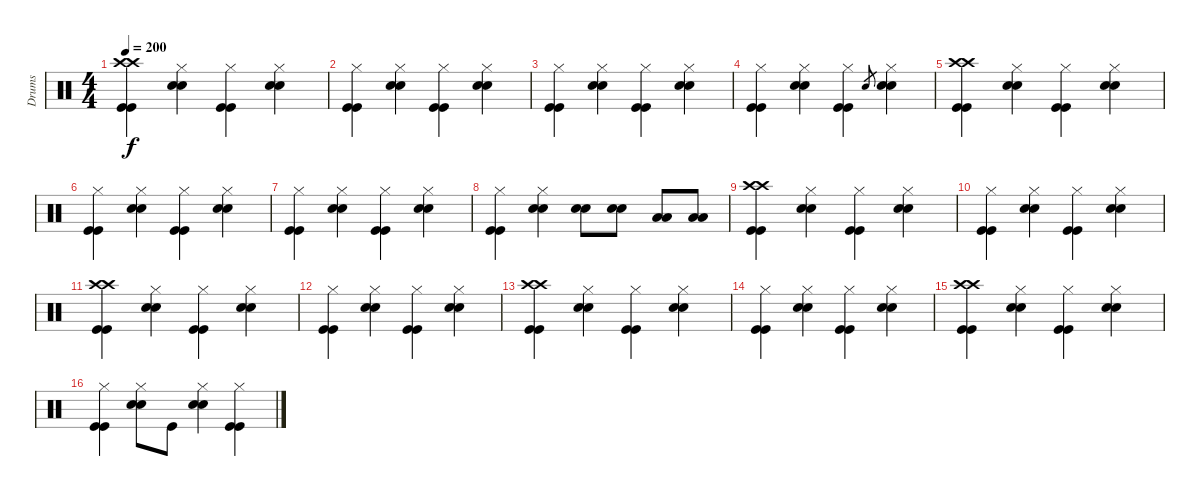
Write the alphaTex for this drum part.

\track ("Drums" "Drums") {instrument percussion}
\staff {score}
\articulation defaults
\ts (4 4)
\tempo 200
\clef neutral
\ks c
("Crash high (hit)" "Crash high (hit)" "Kick (hit)" "Kick (hit)").4{dy f} ("Hi-Hat (closed)" "Electric Snare (hit)" "Electric Snare (hit)").4 ("Hi-Hat (closed)" "Kick (hit)" "Kick (hit)").4 ("Hi-Hat (closed)" "Electric Snare (hit)" "Electric Snare (hit)").4 |
("Hi-Hat (closed)" "Kick (hit)" "Kick (hit)").4 ("Hi-Hat (closed)" "Electric Snare (hit)" "Electric Snare (hit)").4 ("Hi-Hat (closed)" "Kick (hit)" "Kick (hit)").4 ("Hi-Hat (closed)" "Electric Snare (hit)" "Electric Snare (hit)").4 |
("Hi-Hat (closed)" "Kick (hit)" "Kick (hit)").4 ("Hi-Hat (closed)" "Electric Snare (hit)" "Electric Snare (hit)").4 ("Hi-Hat (closed)" "Kick (hit)" "Kick (hit)").4 ("Hi-Hat (closed)" "Electric Snare (hit)" "Electric Snare (hit)").4 |
("Hi-Hat (closed)" "Kick (hit)" "Kick (hit)").4 ("Hi-Hat (closed)" "Electric Snare (hit)" "Electric Snare (hit)").4 ("Hi-Hat (closed)" "Kick (hit)" "Kick (hit)").4 "Electric Snare (hit)".8{gr} ("Hi-Hat (closed)" "Electric Snare (hit)" "Electric Snare (hit)").4 |
("Crash high (hit)" "Crash high (hit)" "Kick (hit)" "Kick (hit)").4 ("Hi-Hat (closed)" "Electric Snare (hit)" "Electric Snare (hit)").4 ("Hi-Hat (closed)" "Kick (hit)" "Kick (hit)").4 ("Hi-Hat (closed)" "Electric Snare (hit)" "Electric Snare (hit)").4 |
("Hi-Hat (closed)" "Kick (hit)" "Kick (hit)").4 ("Hi-Hat (closed)" "Electric Snare (hit)" "Electric Snare (hit)").4 ("Hi-Hat (closed)" "Kick (hit)" "Kick (hit)").4 ("Hi-Hat (closed)" "Electric Snare (hit)" "Electric Snare (hit)").4 |
("Hi-Hat (closed)" "Kick (hit)" "Kick (hit)").4 ("Hi-Hat (closed)" "Electric Snare (hit)" "Electric Snare (hit)").4 ("Hi-Hat (closed)" "Kick (hit)" "Kick (hit)").4 ("Hi-Hat (closed)" "Electric Snare (hit)" "Electric Snare (hit)").4 |
("Hi-Hat (closed)" "Kick (hit)" "Kick (hit)").4 ("Hi-Hat (closed)" "Electric Snare (hit)" "Electric Snare (hit)").4 ("Electric Snare (hit)" "Electric Snare (hit)").8 ("Electric Snare (hit)" "Electric Snare (hit)").8 ("Low Tom (hit)" "Low Tom (hit)").8 ("Low Tom (hit)" "Low Tom (hit)").8 |
("Crash high (hit)" "Crash high (hit)" "Kick (hit)" "Kick (hit)").4 ("Hi-Hat (closed)" "Electric Snare (hit)" "Electric Snare (hit)").4 ("Hi-Hat (closed)" "Kick (hit)" "Kick (hit)").4 ("Hi-Hat (closed)" "Electric Snare (hit)" "Electric Snare (hit)").4 |
("Hi-Hat (closed)" "Kick (hit)" "Kick (hit)").4 ("Hi-Hat (closed)" "Electric Snare (hit)" "Electric Snare (hit)").4 ("Hi-Hat (closed)" "Kick (hit)" "Kick (hit)").4 ("Hi-Hat (closed)" "Electric Snare (hit)" "Electric Snare (hit)").4 |
("Crash high (hit)" "Crash high (hit)" "Kick (hit)" "Kick (hit)").4 ("Hi-Hat (closed)" "Electric Snare (hit)" "Electric Snare (hit)").4 ("Hi-Hat (closed)" "Kick (hit)" "Kick (hit)").4 ("Hi-Hat (closed)" "Electric Snare (hit)" "Electric Snare (hit)").4 |
("Hi-Hat (closed)" "Kick (hit)" "Kick (hit)").4 ("Hi-Hat (closed)" "Electric Snare (hit)" "Electric Snare (hit)").4 ("Hi-Hat (closed)" "Kick (hit)" "Kick (hit)").4 ("Hi-Hat (closed)" "Electric Snare (hit)" "Electric Snare (hit)").4 |
("Crash high (hit)" "Crash high (hit)" "Kick (hit)" "Kick (hit)").4 ("Hi-Hat (closed)" "Electric Snare (hit)" "Electric Snare (hit)").4 ("Hi-Hat (closed)" "Kick (hit)" "Kick (hit)").4 ("Hi-Hat (closed)" "Electric Snare (hit)" "Electric Snare (hit)").4 |
("Hi-Hat (closed)" "Kick (hit)" "Kick (hit)").4 ("Hi-Hat (closed)" "Electric Snare (hit)" "Electric Snare (hit)").4 ("Hi-Hat (closed)" "Kick (hit)" "Kick (hit)").4 ("Hi-Hat (closed)" "Electric Snare (hit)" "Electric Snare (hit)").4 |
("Crash high (hit)" "Crash high (hit)" "Kick (hit)" "Kick (hit)").4 ("Hi-Hat (closed)" "Electric Snare (hit)" "Electric Snare (hit)").4 ("Hi-Hat (closed)" "Kick (hit)" "Kick (hit)").4 ("Hi-Hat (closed)" "Electric Snare (hit)" "Electric Snare (hit)").4 |
("Hi-Hat (closed)" "Kick (hit)" "Kick (hit)").4 ("Hi-Hat (closed)" "Electric Snare (hit)" "Electric Snare (hit)").8 "Kick (hit)".8 ("Hi-Hat (closed)" "Electric Snare (hit)" "Electric Snare (hit)").4 ("Hi-Hat (closed)" "Kick (hit)" "Kick (hit)").4
